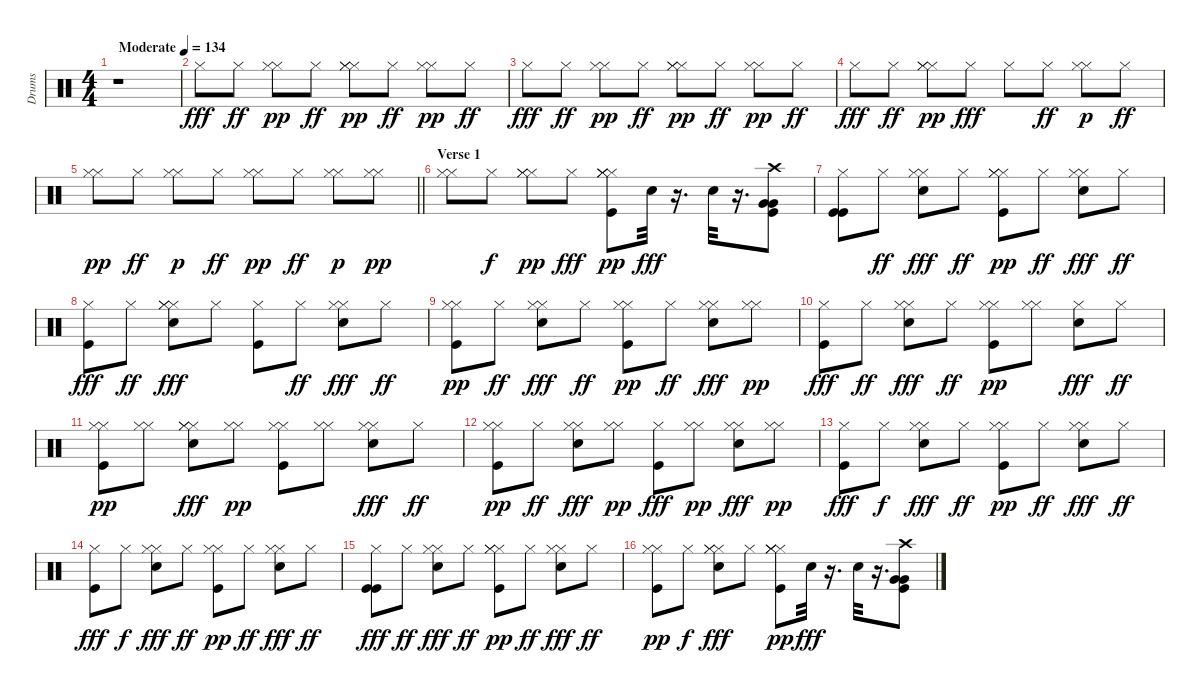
\track ("Drums" "Drums") {instrument percussion}
\staff {score}
\articulation defaults
\ts (4 4)
\tempo (134 "Moderate")
\clef neutral
\ks c
r.1{dy fff} |
"Hi-Hat (closed)".8 "Hi-Hat (closed)".8{dy ff} ("Hi-Hat (closed)" "Hi-Hat (closed)").8{dy pp} "Hi-Hat (closed)".8{dy ff} ("Hi-Hat (closed)" "Hi-Hat (closed)" "Hi-Hat (closed)").8{dy pp} "Hi-Hat (closed)".8{dy ff} ("Hi-Hat (closed)" "Hi-Hat (closed)").8{dy pp} "Hi-Hat (closed)".8{dy ff} |
"Hi-Hat (closed)".8{dy fff} "Hi-Hat (closed)".8{dy ff} ("Hi-Hat (closed)" "Hi-Hat (closed)").8{dy pp} "Hi-Hat (closed)".8{dy ff} ("Hi-Hat (closed)" "Hi-Hat (closed)" "Hi-Hat (closed)").8{dy pp} "Hi-Hat (closed)".8{dy ff} ("Hi-Hat (closed)" "Hi-Hat (closed)").8{dy pp} "Hi-Hat (closed)".8{dy ff} |
"Hi-Hat (closed)".8{dy fff} "Hi-Hat (closed)".8{dy ff} ("Hi-Hat (closed)" "Hi-Hat (closed)" "Hi-Hat (closed)").8{dy pp} "Hi-Hat (closed)".8{dy fff} "Hi-Hat (closed)".8 "Hi-Hat (closed)".8{dy ff} ("Hi-Hat (closed)" "Hi-Hat (closed)").8{dy p} "Hi-Hat (closed)".8{dy ff} |
\barLineRight lightlight
("Hi-Hat (closed)" "Hi-Hat (closed)").8{dy pp} "Hi-Hat (closed)".8{dy ff} ("Hi-Hat (closed)" "Hi-Hat (closed)").8{dy p} "Hi-Hat (closed)".8{dy ff} ("Hi-Hat (closed)" "Hi-Hat (closed)").8{dy pp} "Hi-Hat (closed)".8{dy ff} ("Hi-Hat (closed)" "Hi-Hat (closed)").8{dy p} ("Hi-Hat (closed)" "Hi-Hat (closed)").8{dy pp} |
\section ("" "Verse 1")
("Hi-Hat (closed)" "Hi-Hat (closed)").8 "Hi-Hat (closed)".8{dy f} ("Hi-Hat (closed)" "Hi-Hat (closed)" "Hi-Hat (closed)").8{dy pp} "Hi-Hat (closed)".8{dy fff} ("Hi-Hat (closed)" "Hi-Hat (closed)" "Hi-Hat (closed)" "Hi-Hat (closed)" "Kick (hit)").8{dy pp} "Electric Snare (hit)".32{dy fff} r.16{d} "Electric Snare (hit)".32 r.16{d} ("Very Low Tom (hit)" "Very Low Tom (hit)" "Crash high (hit)" "Kick (hit)").8 |
("Hi-Hat (closed)" "Kick (hit)" "Kick (hit)").8 "Hi-Hat (closed)".8{dy ff} ("Hi-Hat (closed)" "Hi-Hat (closed)" "Electric Snare (hit)").8{dy fff} "Hi-Hat (closed)".8{dy ff} ("Hi-Hat (closed)" "Hi-Hat (closed)" "Hi-Hat (closed)" "Kick (hit)").8{dy pp} "Hi-Hat (closed)".8{dy ff} ("Hi-Hat (closed)" "Hi-Hat (closed)" "Electric Snare (hit)").8{dy fff} "Hi-Hat (closed)".8{dy ff} |
("Hi-Hat (closed)" "Kick (hit)").8{dy fff} "Hi-Hat (closed)".8{dy ff} ("Hi-Hat (closed)" "Hi-Hat (closed)" "Hi-Hat (closed)" "Electric Snare (hit)").8{dy fff} "Hi-Hat (closed)".8 ("Hi-Hat (closed)" "Kick (hit)").8 "Hi-Hat (closed)".8{dy ff} ("Hi-Hat (closed)" "Hi-Hat (closed)" "Electric Snare (hit)").8{dy fff} "Hi-Hat (closed)".8{dy ff} |
("Hi-Hat (closed)" "Hi-Hat (closed)" "Kick (hit)").8{dy pp} "Hi-Hat (closed)".8{dy ff} ("Hi-Hat (closed)" "Hi-Hat (closed)" "Electric Snare (hit)").8{dy fff} "Hi-Hat (closed)".8{dy ff} ("Hi-Hat (closed)" "Hi-Hat (closed)" "Kick (hit)").8{dy pp} "Hi-Hat (closed)".8{dy ff} ("Hi-Hat (closed)" "Hi-Hat (closed)" "Electric Snare (hit)").8{dy fff} ("Hi-Hat (closed)" "Hi-Hat (closed)").8{dy pp} |
("Hi-Hat (closed)" "Kick (hit)").8{dy fff} "Hi-Hat (closed)".8{dy ff} ("Hi-Hat (closed)" "Hi-Hat (closed)" "Electric Snare (hit)").8{dy fff} "Hi-Hat (closed)".8{dy ff} ("Hi-Hat (closed)" "Hi-Hat (closed)" "Kick (hit)").8{dy pp} ("Hi-Hat (closed)" "Hi-Hat (closed)").8 ("Hi-Hat (closed)" "Electric Snare (hit)").8{dy fff} "Hi-Hat (closed)".8{dy ff} |
("Hi-Hat (closed)" "Hi-Hat (closed)" "Kick (hit)").8{dy pp} ("Hi-Hat (closed)" "Hi-Hat (closed)").8 ("Hi-Hat (closed)" "Hi-Hat (closed)" "Hi-Hat (closed)" "Electric Snare (hit)").8{dy fff} ("Hi-Hat (closed)" "Hi-Hat (closed)").8{dy pp} ("Hi-Hat (closed)" "Hi-Hat (closed)" "Kick (hit)").8 ("Hi-Hat (closed)" "Hi-Hat (closed)").8 ("Hi-Hat (closed)" "Hi-Hat (closed)" "Electric Snare (hit)").8{dy fff} "Hi-Hat (closed)".8{dy ff} |
("Hi-Hat (closed)" "Hi-Hat (closed)" "Kick (hit)").8{dy pp} "Hi-Hat (closed)".8{dy ff} ("Hi-Hat (closed)" "Hi-Hat (closed)" "Electric Snare (hit)").8{dy fff} ("Hi-Hat (closed)" "Hi-Hat (closed)").8{dy pp} ("Hi-Hat (closed)" "Kick (hit)").8{dy fff} ("Hi-Hat (closed)" "Hi-Hat (closed)").8{dy pp} ("Hi-Hat (closed)" "Hi-Hat (closed)" "Electric Snare (hit)").8{dy fff} ("Hi-Hat (closed)" "Hi-Hat (closed)").8{dy pp} |
("Hi-Hat (closed)" "Kick (hit)").8{dy fff} "Hi-Hat (closed)".8{dy f} ("Hi-Hat (closed)" "Hi-Hat (closed)" "Electric Snare (hit)").8{dy fff} "Hi-Hat (closed)".8{dy ff} ("Hi-Hat (closed)" "Hi-Hat (closed)" "Kick (hit)").8{dy pp} "Hi-Hat (closed)".8{dy ff} ("Hi-Hat (closed)" "Hi-Hat (closed)" "Electric Snare (hit)").8{dy fff} "Hi-Hat (closed)".8{dy ff} |
("Hi-Hat (closed)" "Kick (hit)").8{dy fff} "Hi-Hat (closed)".8{dy f} ("Hi-Hat (closed)" "Hi-Hat (closed)" "Electric Snare (hit)").8{dy fff} "Hi-Hat (closed)".8{dy ff} ("Hi-Hat (closed)" "Hi-Hat (closed)" "Kick (hit)").8{dy pp} "Hi-Hat (closed)".8{dy ff} ("Hi-Hat (closed)" "Hi-Hat (closed)" "Electric Snare (hit)").8{dy fff} "Hi-Hat (closed)".8{dy ff} |
("Hi-Hat (closed)" "Kick (hit)" "Kick (hit)").8{dy fff} "Hi-Hat (closed)".8{dy ff} ("Hi-Hat (closed)" "Hi-Hat (closed)" "Electric Snare (hit)").8{dy fff} "Hi-Hat (closed)".8{dy ff} ("Hi-Hat (closed)" "Hi-Hat (closed)" "Hi-Hat (closed)" "Kick (hit)").8{dy pp} "Hi-Hat (closed)".8{dy ff} ("Hi-Hat (closed)" "Hi-Hat (closed)" "Electric Snare (hit)").8{dy fff} "Hi-Hat (closed)".8{dy ff} |
("Hi-Hat (closed)" "Hi-Hat (closed)" "Kick (hit)").8{dy pp} "Hi-Hat (closed)".8{dy f} ("Hi-Hat (closed)" "Hi-Hat (closed)" "Hi-Hat (closed)" "Electric Snare (hit)").8{dy fff} "Hi-Hat (closed)".8 ("Hi-Hat (closed)" "Hi-Hat (closed)" "Hi-Hat (closed)" "Hi-Hat (closed)" "Kick (hit)").8{dy pp} "Electric Snare (hit)".32{dy fff} r.16{d} "Electric Snare (hit)".32 r.16{d} ("Very Low Tom (hit)" "Very Low Tom (hit)" "Crash high (hit)" "Kick (hit)").8
